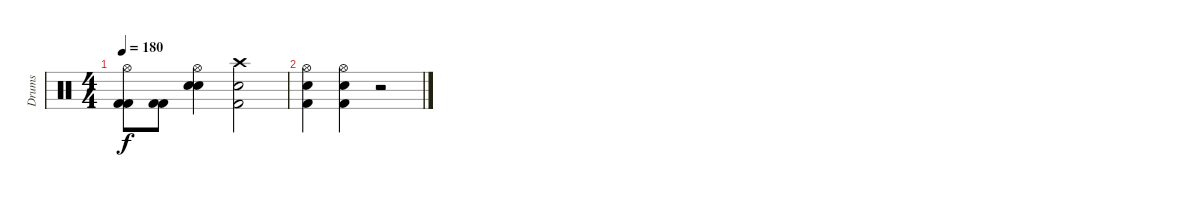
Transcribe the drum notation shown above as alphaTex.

\track ("Drums" "Drums") {instrument percussion}
\staff {score}
\articulation defaults
\ts (4 4)
\tempo 180
\clef neutral
\ks c
("Hi-Hat (open)" "Kick (hit) 2" "Kick (hit) 2").8{dy f} ("Kick (hit) 2" "Kick (hit) 2").8 ("Hi-Hat (open)" "Snare (hit) 2" "Snare (hit) 2").4 ("Crash high (hit)" "Snare (hit) 2" "Kick (hit) 2").2 |
("Hi-Hat (open)" "Snare (hit) 2" "Kick (hit) 2").4 ("Hi-Hat (open)" "Snare (hit) 2" "Kick (hit) 2").4 r.2
